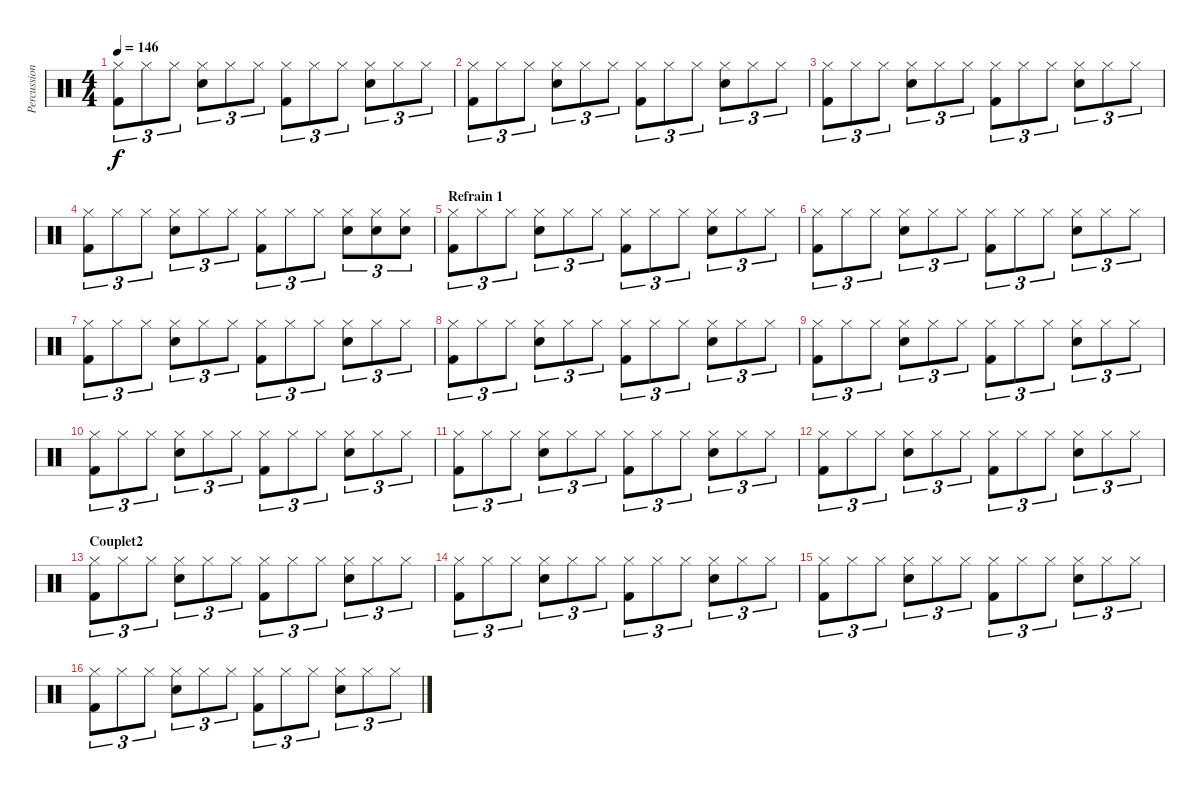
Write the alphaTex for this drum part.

\track ("Percussions" "Percussion") {instrument percussion}
\staff {score}
\articulation defaults
\ts (4 4)
\tempo 146
\clef neutral
\ks c
("Hi-Hat (closed)" "Kick (hit) 2").8{tu (3 2) dy f} "Hi-Hat (closed)".8{tu (3 2)} "Hi-Hat (closed)".8{tu (3 2)} ("Hi-Hat (closed)" "Electric Snare (hit)").8{tu (3 2)} "Hi-Hat (closed)".8{tu (3 2)} "Hi-Hat (closed)".8{tu (3 2)} ("Hi-Hat (closed)" "Kick (hit) 2").8{tu (3 2)} "Hi-Hat (closed)".8{tu (3 2)} "Hi-Hat (closed)".8{tu (3 2)} ("Hi-Hat (closed)" "Electric Snare (hit)").8{tu (3 2)} "Hi-Hat (closed)".8{tu (3 2)} "Hi-Hat (closed)".8{tu (3 2)} |
("Hi-Hat (closed)" "Kick (hit) 2").8{tu (3 2)} "Hi-Hat (closed)".8{tu (3 2)} "Hi-Hat (closed)".8{tu (3 2)} ("Hi-Hat (closed)" "Electric Snare (hit)").8{tu (3 2)} "Hi-Hat (closed)".8{tu (3 2)} "Hi-Hat (closed)".8{tu (3 2)} ("Hi-Hat (closed)" "Kick (hit) 2").8{tu (3 2)} "Hi-Hat (closed)".8{tu (3 2)} "Hi-Hat (closed)".8{tu (3 2)} ("Hi-Hat (closed)" "Electric Snare (hit)").8{tu (3 2)} "Hi-Hat (closed)".8{tu (3 2)} "Hi-Hat (closed)".8{tu (3 2)} |
("Hi-Hat (closed)" "Kick (hit) 2").8{tu (3 2)} "Hi-Hat (closed)".8{tu (3 2)} "Hi-Hat (closed)".8{tu (3 2)} ("Hi-Hat (closed)" "Electric Snare (hit)").8{tu (3 2)} "Hi-Hat (closed)".8{tu (3 2)} "Hi-Hat (closed)".8{tu (3 2)} ("Hi-Hat (closed)" "Kick (hit) 2").8{tu (3 2)} "Hi-Hat (closed)".8{tu (3 2)} "Hi-Hat (closed)".8{tu (3 2)} ("Hi-Hat (closed)" "Electric Snare (hit)").8{tu (3 2)} "Hi-Hat (closed)".8{tu (3 2)} "Hi-Hat (closed)".8{tu (3 2)} |
("Hi-Hat (closed)" "Kick (hit) 2").8{tu (3 2)} "Hi-Hat (closed)".8{tu (3 2)} "Hi-Hat (closed)".8{tu (3 2)} ("Hi-Hat (closed)" "Electric Snare (hit)").8{tu (3 2)} "Hi-Hat (closed)".8{tu (3 2)} "Hi-Hat (closed)".8{tu (3 2)} ("Hi-Hat (closed)" "Kick (hit) 2").8{tu (3 2)} "Hi-Hat (closed)".8{tu (3 2)} "Hi-Hat (closed)".8{tu (3 2)} ("Hi-Hat (closed)" "Electric Snare (hit)").8{tu (3 2)} ("Hi-Hat (closed)" "Electric Snare (hit)").8{tu (3 2)} ("Hi-Hat (closed)" "Electric Snare (hit)").8{tu (3 2)} |
\section ("" "Refrain 1")
("Hi-Hat (closed)" "Kick (hit) 2").8{tu (3 2)} "Hi-Hat (closed)".8{tu (3 2)} "Hi-Hat (closed)".8{tu (3 2)} ("Hi-Hat (closed)" "Electric Snare (hit)").8{tu (3 2)} "Hi-Hat (closed)".8{tu (3 2)} "Hi-Hat (closed)".8{tu (3 2)} ("Hi-Hat (closed)" "Kick (hit) 2").8{tu (3 2)} "Hi-Hat (closed)".8{tu (3 2)} "Hi-Hat (closed)".8{tu (3 2)} ("Hi-Hat (closed)" "Electric Snare (hit)").8{tu (3 2)} "Hi-Hat (closed)".8{tu (3 2)} "Hi-Hat (closed)".8{tu (3 2)} |
("Hi-Hat (closed)" "Kick (hit) 2").8{tu (3 2)} "Hi-Hat (closed)".8{tu (3 2)} "Hi-Hat (closed)".8{tu (3 2)} ("Hi-Hat (closed)" "Electric Snare (hit)").8{tu (3 2)} "Hi-Hat (closed)".8{tu (3 2)} "Hi-Hat (closed)".8{tu (3 2)} ("Hi-Hat (closed)" "Kick (hit) 2").8{tu (3 2)} "Hi-Hat (closed)".8{tu (3 2)} "Hi-Hat (closed)".8{tu (3 2)} ("Hi-Hat (closed)" "Electric Snare (hit)").8{tu (3 2)} "Hi-Hat (closed)".8{tu (3 2)} "Hi-Hat (closed)".8{tu (3 2)} |
("Hi-Hat (closed)" "Kick (hit) 2").8{tu (3 2)} "Hi-Hat (closed)".8{tu (3 2)} "Hi-Hat (closed)".8{tu (3 2)} ("Hi-Hat (closed)" "Electric Snare (hit)").8{tu (3 2)} "Hi-Hat (closed)".8{tu (3 2)} "Hi-Hat (closed)".8{tu (3 2)} ("Hi-Hat (closed)" "Kick (hit) 2").8{tu (3 2)} "Hi-Hat (closed)".8{tu (3 2)} "Hi-Hat (closed)".8{tu (3 2)} ("Hi-Hat (closed)" "Electric Snare (hit)").8{tu (3 2)} "Hi-Hat (closed)".8{tu (3 2)} "Hi-Hat (closed)".8{tu (3 2)} |
("Hi-Hat (closed)" "Kick (hit) 2").8{tu (3 2)} "Hi-Hat (closed)".8{tu (3 2)} "Hi-Hat (closed)".8{tu (3 2)} ("Hi-Hat (closed)" "Electric Snare (hit)").8{tu (3 2)} "Hi-Hat (closed)".8{tu (3 2)} "Hi-Hat (closed)".8{tu (3 2)} ("Hi-Hat (closed)" "Kick (hit) 2").8{tu (3 2)} "Hi-Hat (closed)".8{tu (3 2)} "Hi-Hat (closed)".8{tu (3 2)} ("Hi-Hat (closed)" "Electric Snare (hit)").8{tu (3 2)} "Hi-Hat (closed)".8{tu (3 2)} "Hi-Hat (closed)".8{tu (3 2)} |
("Hi-Hat (closed)" "Kick (hit) 2").8{tu (3 2)} "Hi-Hat (closed)".8{tu (3 2)} "Hi-Hat (closed)".8{tu (3 2)} ("Hi-Hat (closed)" "Electric Snare (hit)").8{tu (3 2)} "Hi-Hat (closed)".8{tu (3 2)} "Hi-Hat (closed)".8{tu (3 2)} ("Hi-Hat (closed)" "Kick (hit) 2").8{tu (3 2)} "Hi-Hat (closed)".8{tu (3 2)} "Hi-Hat (closed)".8{tu (3 2)} ("Hi-Hat (closed)" "Electric Snare (hit)").8{tu (3 2)} "Hi-Hat (closed)".8{tu (3 2)} "Hi-Hat (closed)".8{tu (3 2)} |
("Hi-Hat (closed)" "Kick (hit) 2").8{tu (3 2)} "Hi-Hat (closed)".8{tu (3 2)} "Hi-Hat (closed)".8{tu (3 2)} ("Hi-Hat (closed)" "Electric Snare (hit)").8{tu (3 2)} "Hi-Hat (closed)".8{tu (3 2)} "Hi-Hat (closed)".8{tu (3 2)} ("Hi-Hat (closed)" "Kick (hit) 2").8{tu (3 2)} "Hi-Hat (closed)".8{tu (3 2)} "Hi-Hat (closed)".8{tu (3 2)} ("Hi-Hat (closed)" "Electric Snare (hit)").8{tu (3 2)} "Hi-Hat (closed)".8{tu (3 2)} "Hi-Hat (closed)".8{tu (3 2)} |
("Hi-Hat (closed)" "Kick (hit) 2").8{tu (3 2)} "Hi-Hat (closed)".8{tu (3 2)} "Hi-Hat (closed)".8{tu (3 2)} ("Hi-Hat (closed)" "Electric Snare (hit)").8{tu (3 2)} "Hi-Hat (closed)".8{tu (3 2)} "Hi-Hat (closed)".8{tu (3 2)} ("Hi-Hat (closed)" "Kick (hit) 2").8{tu (3 2)} "Hi-Hat (closed)".8{tu (3 2)} "Hi-Hat (closed)".8{tu (3 2)} ("Hi-Hat (closed)" "Electric Snare (hit)").8{tu (3 2)} "Hi-Hat (closed)".8{tu (3 2)} "Hi-Hat (closed)".8{tu (3 2)} |
("Hi-Hat (closed)" "Kick (hit) 2").8{tu (3 2)} "Hi-Hat (closed)".8{tu (3 2)} "Hi-Hat (closed)".8{tu (3 2)} ("Hi-Hat (closed)" "Electric Snare (hit)").8{tu (3 2)} "Hi-Hat (closed)".8{tu (3 2)} "Hi-Hat (closed)".8{tu (3 2)} ("Hi-Hat (closed)" "Kick (hit) 2").8{tu (3 2)} "Hi-Hat (closed)".8{tu (3 2)} "Hi-Hat (closed)".8{tu (3 2)} ("Hi-Hat (closed)" "Electric Snare (hit)").8{tu (3 2)} "Hi-Hat (closed)".8{tu (3 2)} "Hi-Hat (closed)".8{tu (3 2)} |
\section ("" "Couplet2")
("Hi-Hat (closed)" "Kick (hit) 2").8{tu (3 2)} "Hi-Hat (closed)".8{tu (3 2)} "Hi-Hat (closed)".8{tu (3 2)} ("Hi-Hat (closed)" "Electric Snare (hit)").8{tu (3 2)} "Hi-Hat (closed)".8{tu (3 2)} "Hi-Hat (closed)".8{tu (3 2)} ("Hi-Hat (closed)" "Kick (hit) 2").8{tu (3 2)} "Hi-Hat (closed)".8{tu (3 2)} "Hi-Hat (closed)".8{tu (3 2)} ("Hi-Hat (closed)" "Electric Snare (hit)").8{tu (3 2)} "Hi-Hat (closed)".8{tu (3 2)} "Hi-Hat (closed)".8{tu (3 2)} |
("Hi-Hat (closed)" "Kick (hit) 2").8{tu (3 2)} "Hi-Hat (closed)".8{tu (3 2)} "Hi-Hat (closed)".8{tu (3 2)} ("Hi-Hat (closed)" "Electric Snare (hit)").8{tu (3 2)} "Hi-Hat (closed)".8{tu (3 2)} "Hi-Hat (closed)".8{tu (3 2)} ("Hi-Hat (closed)" "Kick (hit) 2").8{tu (3 2)} "Hi-Hat (closed)".8{tu (3 2)} "Hi-Hat (closed)".8{tu (3 2)} ("Hi-Hat (closed)" "Electric Snare (hit)").8{tu (3 2)} "Hi-Hat (closed)".8{tu (3 2)} "Hi-Hat (closed)".8{tu (3 2)} |
("Hi-Hat (closed)" "Kick (hit) 2").8{tu (3 2)} "Hi-Hat (closed)".8{tu (3 2)} "Hi-Hat (closed)".8{tu (3 2)} ("Hi-Hat (closed)" "Electric Snare (hit)").8{tu (3 2)} "Hi-Hat (closed)".8{tu (3 2)} "Hi-Hat (closed)".8{tu (3 2)} ("Hi-Hat (closed)" "Kick (hit) 2").8{tu (3 2)} "Hi-Hat (closed)".8{tu (3 2)} "Hi-Hat (closed)".8{tu (3 2)} ("Hi-Hat (closed)" "Electric Snare (hit)").8{tu (3 2)} "Hi-Hat (closed)".8{tu (3 2)} "Hi-Hat (closed)".8{tu (3 2)} |
("Hi-Hat (closed)" "Kick (hit) 2").8{tu (3 2)} "Hi-Hat (closed)".8{tu (3 2)} "Hi-Hat (closed)".8{tu (3 2)} ("Hi-Hat (closed)" "Electric Snare (hit)").8{tu (3 2)} "Hi-Hat (closed)".8{tu (3 2)} "Hi-Hat (closed)".8{tu (3 2)} ("Hi-Hat (closed)" "Kick (hit) 2").8{tu (3 2)} "Hi-Hat (closed)".8{tu (3 2)} "Hi-Hat (closed)".8{tu (3 2)} ("Hi-Hat (closed)" "Electric Snare (hit)").8{tu (3 2)} "Hi-Hat (closed)".8{tu (3 2)} "Hi-Hat (closed)".8{tu (3 2)}
